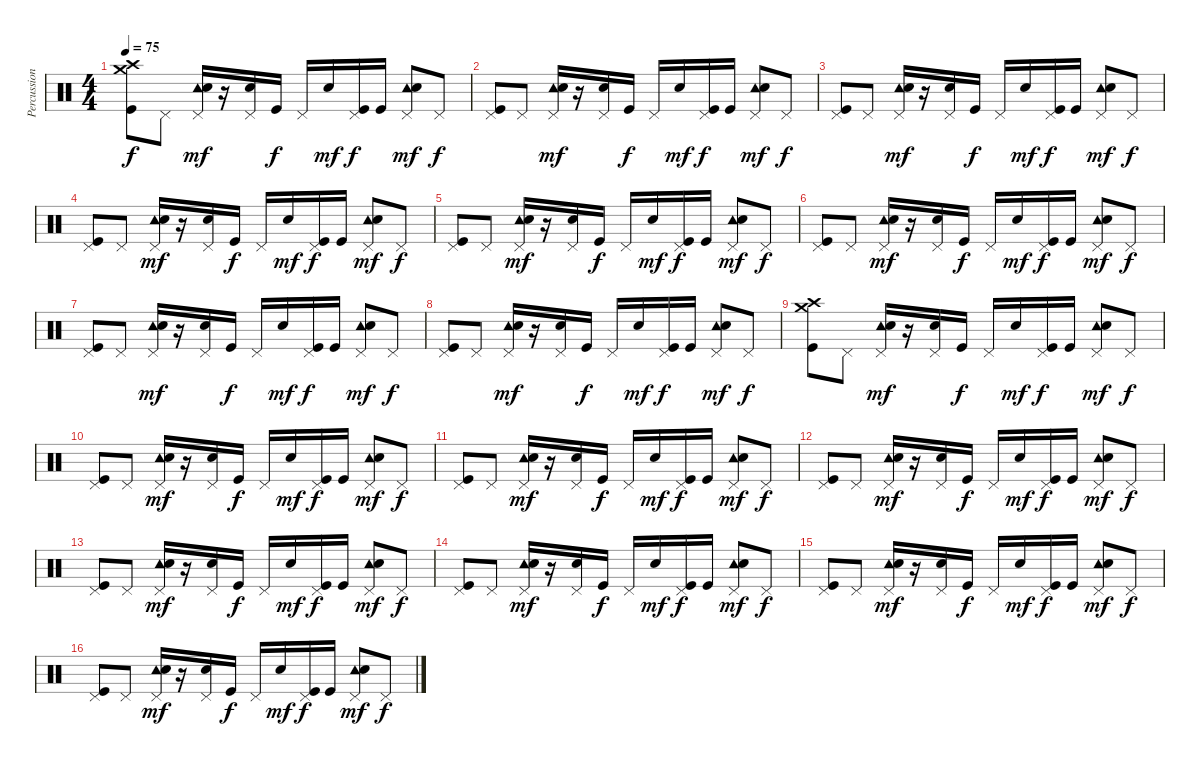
\track ("Percussions" "Percussion") {instrument percussion}
\staff {score}
\articulation defaults
\ts (4 4)
\tempo 75
\clef neutral
\ks c
("Crash medium (hit)" "Crash high (hit)" "Kick (hit)").8{dy f} "Pedal Hi-Hat (hit)".8 ("Pedal Hi-Hat (hit)" "Tambourine (hit)" "Electric Snare (hit)").16{dy mf} r.16 ("Pedal Hi-Hat (hit)" "Electric Snare (hit)").16 "Kick (hit)".16{dy f} "Pedal Hi-Hat (hit)".16 "Electric Snare (hit)".16{dy mf} ("Pedal Hi-Hat (hit)" "Kick (hit)").16{dy f} "Kick (hit)".16 ("Pedal Hi-Hat (hit)" "Tambourine (hit)" "Electric Snare (hit)").8{dy mf} "Pedal Hi-Hat (hit)".8{dy f} |
("Pedal Hi-Hat (hit)" "Kick (hit)").8 "Pedal Hi-Hat (hit)".8 ("Pedal Hi-Hat (hit)" "Tambourine (hit)" "Electric Snare (hit)").16{dy mf} r.16 ("Pedal Hi-Hat (hit)" "Electric Snare (hit)").16 "Kick (hit)".16{dy f} "Pedal Hi-Hat (hit)".16 "Electric Snare (hit)".16{dy mf} ("Pedal Hi-Hat (hit)" "Kick (hit)").16{dy f} "Kick (hit)".16 ("Pedal Hi-Hat (hit)" "Tambourine (hit)" "Electric Snare (hit)").8{dy mf} "Pedal Hi-Hat (hit)".8{dy f} |
("Pedal Hi-Hat (hit)" "Kick (hit)").8 "Pedal Hi-Hat (hit)".8 ("Pedal Hi-Hat (hit)" "Tambourine (hit)" "Electric Snare (hit)").16{dy mf} r.16 ("Pedal Hi-Hat (hit)" "Electric Snare (hit)").16 "Kick (hit)".16{dy f} "Pedal Hi-Hat (hit)".16 "Electric Snare (hit)".16{dy mf} ("Pedal Hi-Hat (hit)" "Kick (hit)").16{dy f} "Kick (hit)".16 ("Pedal Hi-Hat (hit)" "Tambourine (hit)" "Electric Snare (hit)").8{dy mf} "Pedal Hi-Hat (hit)".8{dy f} |
("Pedal Hi-Hat (hit)" "Kick (hit)").8 "Pedal Hi-Hat (hit)".8 ("Pedal Hi-Hat (hit)" "Tambourine (hit)" "Electric Snare (hit)").16{dy mf} r.16 ("Pedal Hi-Hat (hit)" "Electric Snare (hit)").16 "Kick (hit)".16{dy f} "Pedal Hi-Hat (hit)".16 "Electric Snare (hit)".16{dy mf} ("Pedal Hi-Hat (hit)" "Kick (hit)").16{dy f} "Kick (hit)".16 ("Pedal Hi-Hat (hit)" "Tambourine (hit)" "Electric Snare (hit)").8{dy mf} "Pedal Hi-Hat (hit)".8{dy f} |
("Pedal Hi-Hat (hit)" "Kick (hit)").8 "Pedal Hi-Hat (hit)".8 ("Pedal Hi-Hat (hit)" "Tambourine (hit)" "Electric Snare (hit)").16{dy mf} r.16 ("Pedal Hi-Hat (hit)" "Electric Snare (hit)").16 "Kick (hit)".16{dy f} "Pedal Hi-Hat (hit)".16 "Electric Snare (hit)".16{dy mf} ("Pedal Hi-Hat (hit)" "Kick (hit)").16{dy f} "Kick (hit)".16 ("Pedal Hi-Hat (hit)" "Tambourine (hit)" "Electric Snare (hit)").8{dy mf} "Pedal Hi-Hat (hit)".8{dy f} |
("Pedal Hi-Hat (hit)" "Kick (hit)").8 "Pedal Hi-Hat (hit)".8 ("Pedal Hi-Hat (hit)" "Tambourine (hit)" "Electric Snare (hit)").16{dy mf} r.16 ("Pedal Hi-Hat (hit)" "Electric Snare (hit)").16 "Kick (hit)".16{dy f} "Pedal Hi-Hat (hit)".16 "Electric Snare (hit)".16{dy mf} ("Pedal Hi-Hat (hit)" "Kick (hit)").16{dy f} "Kick (hit)".16 ("Pedal Hi-Hat (hit)" "Tambourine (hit)" "Electric Snare (hit)").8{dy mf} "Pedal Hi-Hat (hit)".8{dy f} |
("Pedal Hi-Hat (hit)" "Kick (hit)").8 "Pedal Hi-Hat (hit)".8 ("Pedal Hi-Hat (hit)" "Tambourine (hit)" "Electric Snare (hit)").16{dy mf} r.16 ("Pedal Hi-Hat (hit)" "Electric Snare (hit)").16 "Kick (hit)".16{dy f} "Pedal Hi-Hat (hit)".16 "Electric Snare (hit)".16{dy mf} ("Pedal Hi-Hat (hit)" "Kick (hit)").16{dy f} "Kick (hit)".16 ("Pedal Hi-Hat (hit)" "Tambourine (hit)" "Electric Snare (hit)").8{dy mf} "Pedal Hi-Hat (hit)".8{dy f} |
("Pedal Hi-Hat (hit)" "Kick (hit)").8 "Pedal Hi-Hat (hit)".8 ("Pedal Hi-Hat (hit)" "Tambourine (hit)" "Electric Snare (hit)").16{dy mf} r.16 ("Pedal Hi-Hat (hit)" "Electric Snare (hit)").16 "Kick (hit)".16{dy f} "Pedal Hi-Hat (hit)".16 "Electric Snare (hit)".16{dy mf} ("Pedal Hi-Hat (hit)" "Kick (hit)").16{dy f} "Kick (hit)".16 ("Pedal Hi-Hat (hit)" "Tambourine (hit)" "Electric Snare (hit)").8{dy mf} "Pedal Hi-Hat (hit)".8{dy f} |
("Crash medium (hit)" "Crash high (hit)" "Kick (hit)").8 "Pedal Hi-Hat (hit)".8 ("Pedal Hi-Hat (hit)" "Tambourine (hit)" "Electric Snare (hit)").16{dy mf} r.16 ("Pedal Hi-Hat (hit)" "Electric Snare (hit)").16 "Kick (hit)".16{dy f} "Pedal Hi-Hat (hit)".16 "Electric Snare (hit)".16{dy mf} ("Pedal Hi-Hat (hit)" "Kick (hit)").16{dy f} "Kick (hit)".16 ("Pedal Hi-Hat (hit)" "Tambourine (hit)" "Electric Snare (hit)").8{dy mf} "Pedal Hi-Hat (hit)".8{dy f} |
("Pedal Hi-Hat (hit)" "Kick (hit)").8 "Pedal Hi-Hat (hit)".8 ("Pedal Hi-Hat (hit)" "Tambourine (hit)" "Electric Snare (hit)").16{dy mf} r.16 ("Pedal Hi-Hat (hit)" "Electric Snare (hit)").16 "Kick (hit)".16{dy f} "Pedal Hi-Hat (hit)".16 "Electric Snare (hit)".16{dy mf} ("Pedal Hi-Hat (hit)" "Kick (hit)").16{dy f} "Kick (hit)".16 ("Pedal Hi-Hat (hit)" "Tambourine (hit)" "Electric Snare (hit)").8{dy mf} "Pedal Hi-Hat (hit)".8{dy f} |
("Pedal Hi-Hat (hit)" "Kick (hit)").8 "Pedal Hi-Hat (hit)".8 ("Pedal Hi-Hat (hit)" "Tambourine (hit)" "Electric Snare (hit)").16{dy mf} r.16 ("Pedal Hi-Hat (hit)" "Electric Snare (hit)").16 "Kick (hit)".16{dy f} "Pedal Hi-Hat (hit)".16 "Electric Snare (hit)".16{dy mf} ("Pedal Hi-Hat (hit)" "Kick (hit)").16{dy f} "Kick (hit)".16 ("Pedal Hi-Hat (hit)" "Tambourine (hit)" "Electric Snare (hit)").8{dy mf} "Pedal Hi-Hat (hit)".8{dy f} |
("Pedal Hi-Hat (hit)" "Kick (hit)").8 "Pedal Hi-Hat (hit)".8 ("Pedal Hi-Hat (hit)" "Tambourine (hit)" "Electric Snare (hit)").16{dy mf} r.16 ("Pedal Hi-Hat (hit)" "Electric Snare (hit)").16 "Kick (hit)".16{dy f} "Pedal Hi-Hat (hit)".16 "Electric Snare (hit)".16{dy mf} ("Pedal Hi-Hat (hit)" "Kick (hit)").16{dy f} "Kick (hit)".16 ("Pedal Hi-Hat (hit)" "Tambourine (hit)" "Electric Snare (hit)").8{dy mf} "Pedal Hi-Hat (hit)".8{dy f} |
("Pedal Hi-Hat (hit)" "Kick (hit)").8 "Pedal Hi-Hat (hit)".8 ("Pedal Hi-Hat (hit)" "Tambourine (hit)" "Electric Snare (hit)").16{dy mf} r.16 ("Pedal Hi-Hat (hit)" "Electric Snare (hit)").16 "Kick (hit)".16{dy f} "Pedal Hi-Hat (hit)".16 "Electric Snare (hit)".16{dy mf} ("Pedal Hi-Hat (hit)" "Kick (hit)").16{dy f} "Kick (hit)".16 ("Pedal Hi-Hat (hit)" "Tambourine (hit)" "Electric Snare (hit)").8{dy mf} "Pedal Hi-Hat (hit)".8{dy f} |
("Pedal Hi-Hat (hit)" "Kick (hit)").8 "Pedal Hi-Hat (hit)".8 ("Pedal Hi-Hat (hit)" "Tambourine (hit)" "Electric Snare (hit)").16{dy mf} r.16 ("Pedal Hi-Hat (hit)" "Electric Snare (hit)").16 "Kick (hit)".16{dy f} "Pedal Hi-Hat (hit)".16 "Electric Snare (hit)".16{dy mf} ("Pedal Hi-Hat (hit)" "Kick (hit)").16{dy f} "Kick (hit)".16 ("Pedal Hi-Hat (hit)" "Tambourine (hit)" "Electric Snare (hit)").8{dy mf} "Pedal Hi-Hat (hit)".8{dy f} |
("Pedal Hi-Hat (hit)" "Kick (hit)").8 "Pedal Hi-Hat (hit)".8 ("Pedal Hi-Hat (hit)" "Tambourine (hit)" "Electric Snare (hit)").16{dy mf} r.16 ("Pedal Hi-Hat (hit)" "Electric Snare (hit)").16 "Kick (hit)".16{dy f} "Pedal Hi-Hat (hit)".16 "Electric Snare (hit)".16{dy mf} ("Pedal Hi-Hat (hit)" "Kick (hit)").16{dy f} "Kick (hit)".16 ("Pedal Hi-Hat (hit)" "Tambourine (hit)" "Electric Snare (hit)").8{dy mf} "Pedal Hi-Hat (hit)".8{dy f} |
("Pedal Hi-Hat (hit)" "Kick (hit)").8 "Pedal Hi-Hat (hit)".8 ("Pedal Hi-Hat (hit)" "Tambourine (hit)" "Electric Snare (hit)").16{dy mf} r.16 ("Pedal Hi-Hat (hit)" "Electric Snare (hit)").16 "Kick (hit)".16{dy f} "Pedal Hi-Hat (hit)".16 "Electric Snare (hit)".16{dy mf} ("Pedal Hi-Hat (hit)" "Kick (hit)").16{dy f} "Kick (hit)".16 ("Pedal Hi-Hat (hit)" "Tambourine (hit)" "Electric Snare (hit)").8{dy mf} "Pedal Hi-Hat (hit)".8{dy f}
